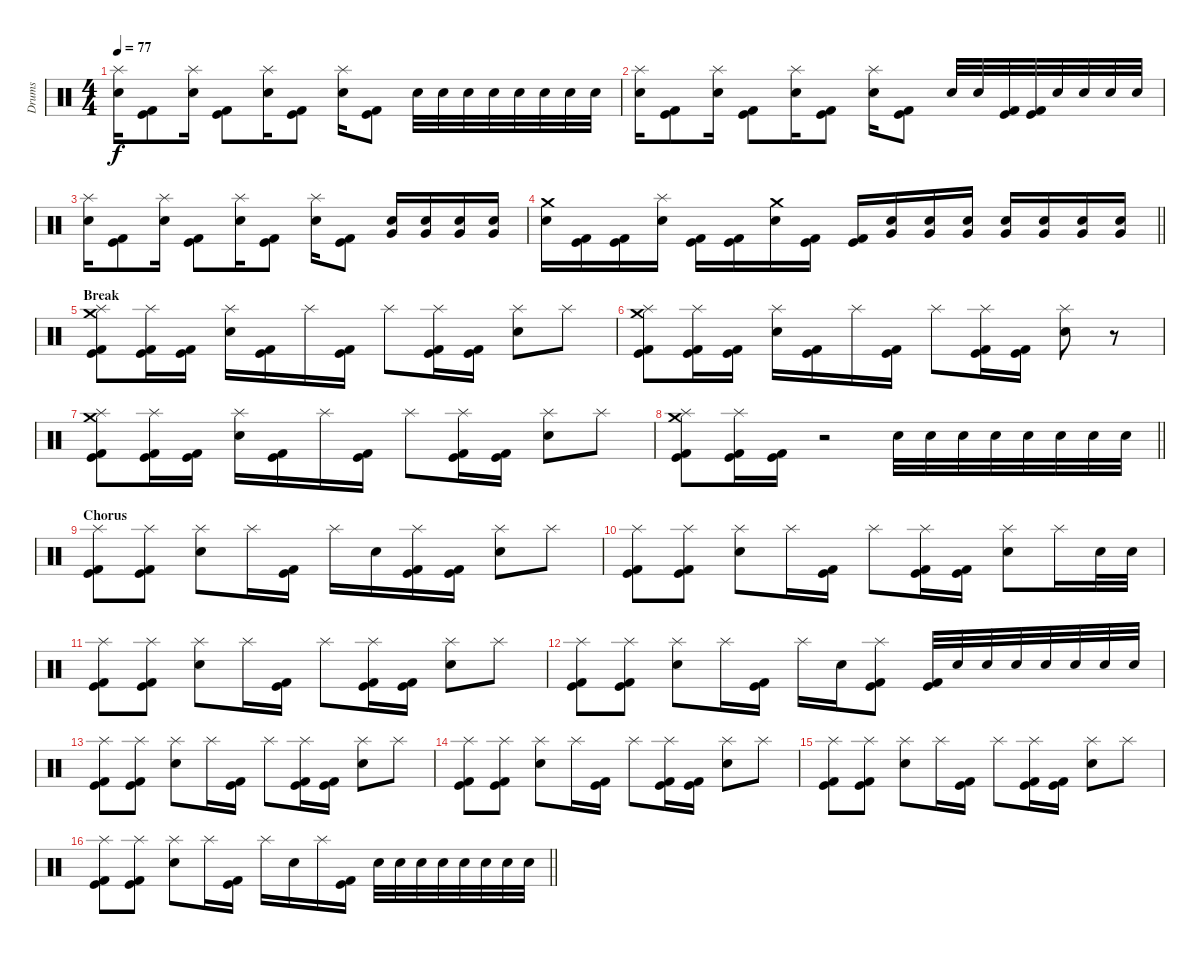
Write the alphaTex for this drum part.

\track ("Drums" "Drums") {instrument percussion}
\staff {score}
\articulation defaults
\ts (4 4)
\tempo 77
\clef neutral
\ks c
("Splash (hit)" "Snare (hit) 2").16{dy f} ("Kick (hit)" "Kick (hit) 2").8 ("Splash (hit)" "Snare (hit) 2").16 ("Kick (hit)" "Kick (hit) 2").8 ("Splash (hit)" "Snare (hit) 2").16 ("Kick (hit)" "Kick (hit) 2").8 ("Splash (hit)" "Snare (hit) 2").16 ("Kick (hit)" "Kick (hit) 2").8 "Snare (hit) 2".32 "Snare (hit) 2".32 "Snare (hit) 2".32 "Snare (hit) 2".32 "Snare (hit) 2".32 "Snare (hit) 2".32 "Snare (hit) 2".32 "Snare (hit) 2".32 |
("Splash (hit)" "Snare (hit) 2").16 ("Kick (hit)" "Kick (hit) 2").8 ("Splash (hit)" "Snare (hit) 2").16 ("Kick (hit)" "Kick (hit) 2").8 ("Splash (hit)" "Snare (hit) 2").16 ("Kick (hit)" "Kick (hit) 2").8 ("Splash (hit)" "Snare (hit) 2").16 ("Kick (hit)" "Kick (hit) 2").8 "Snare (hit) 2".32 "Snare (hit) 2".32 ("Kick (hit)" "Kick (hit) 2").32 ("Kick (hit)" "Kick (hit) 2").32 "Snare (hit) 2".32 "Snare (hit) 2".32 "Snare (hit) 2".32 "Snare (hit) 2".32 |
("Splash (hit)" "Snare (hit) 2").16 ("Kick (hit)" "Kick (hit) 2").8 ("Splash (hit)" "Snare (hit) 2").16 ("Kick (hit)" "Kick (hit) 2").8 ("Splash (hit)" "Snare (hit) 2").16 ("Kick (hit)" "Kick (hit) 2").8 ("Splash (hit)" "Snare (hit) 2").16 ("Kick (hit)" "Kick (hit) 2").8 ("Very Low Tom (hit)" "Snare (hit) 2").16 ("Very Low Tom (hit)" "Snare (hit) 2").16 ("Very Low Tom (hit)" "Snare (hit) 2").16 ("Very Low Tom (hit)" "Snare (hit) 2").16 |
\barLineRight lightlight
("Crash medium (hit)" "Snare (hit) 2").16 ("Kick (hit)" "Kick (hit) 2").16 ("Kick (hit)" "Kick (hit) 2").16 ("Splash (hit)" "Snare (hit) 2").16 ("Kick (hit)" "Kick (hit) 2").16 ("Kick (hit)" "Kick (hit) 2").16 ("Crash medium (hit)" "Snare (hit) 2").16 ("Kick (hit)" "Kick (hit) 2").16 ("Kick (hit)" "Kick (hit) 2").16 ("Very Low Tom (hit)" "Snare (hit) 2").16 ("Very Low Tom (hit)" "Snare (hit) 2").16 ("Very Low Tom (hit)" "Snare (hit) 2").16 ("Very Low Tom (hit)" "Snare (hit) 2").16 ("Very Low Tom (hit)" "Snare (hit) 2").16 ("Very Low Tom (hit)" "Snare (hit) 2").16 ("Very Low Tom (hit)" "Snare (hit) 2").16 |
\section ("" "Break")
("Splash (hit)" "Crash medium (hit)" "Kick (hit)" "Kick (hit) 2").8 ("Splash (hit)" "Kick (hit)" "Kick (hit) 2").16 ("Kick (hit)" "Kick (hit) 2").16 ("Splash (hit)" "Snare (hit) 2").16 ("Kick (hit)" "Kick (hit) 2").16 "Splash (hit)".16 ("Kick (hit)" "Kick (hit) 2").16 "Splash (hit)".8 ("Splash (hit)" "Kick (hit)" "Kick (hit) 2").16 ("Kick (hit)" "Kick (hit) 2").16 ("Splash (hit)" "Snare (hit) 2").8 "Splash (hit)".8 |
("Splash (hit)" "Crash medium (hit)" "Kick (hit)" "Kick (hit) 2").8 ("Splash (hit)" "Kick (hit)" "Kick (hit) 2").16 ("Kick (hit)" "Kick (hit) 2").16 ("Splash (hit)" "Snare (hit) 2").16 ("Kick (hit)" "Kick (hit) 2").16 "Splash (hit)".16 ("Kick (hit)" "Kick (hit) 2").16 "Splash (hit)".8 ("Splash (hit)" "Kick (hit)" "Kick (hit) 2").16 ("Kick (hit)" "Kick (hit) 2").16 ("Splash (hit)" "Snare (hit) 2").8 r.8 |
("Splash (hit)" "Crash medium (hit)" "Kick (hit)" "Kick (hit) 2").8 ("Splash (hit)" "Kick (hit)" "Kick (hit) 2").16 ("Kick (hit)" "Kick (hit) 2").16 ("Splash (hit)" "Snare (hit) 2").16 ("Kick (hit)" "Kick (hit) 2").16 "Splash (hit)".16 ("Kick (hit)" "Kick (hit) 2").16 "Splash (hit)".8 ("Splash (hit)" "Kick (hit)" "Kick (hit) 2").16 ("Kick (hit)" "Kick (hit) 2").16 ("Splash (hit)" "Snare (hit) 2").8 "Splash (hit)".8 |
\barLineRight lightlight
("Splash (hit)" "Crash medium (hit)" "Kick (hit)" "Kick (hit) 2").8 ("Splash (hit)" "Kick (hit)" "Kick (hit) 2").16 ("Kick (hit)" "Kick (hit) 2").16 r.2 "Snare (hit) 2".32 "Snare (hit) 2".32 "Snare (hit) 2".32 "Snare (hit) 2".32 "Snare (hit) 2".32 "Snare (hit) 2".32 "Snare (hit) 2".32 "Snare (hit) 2".32 |
\section ("" "Chorus")
("Splash (hit)" "Kick (hit)" "Kick (hit) 2").8 ("Splash (hit)" "Kick (hit)" "Kick (hit) 2").8 ("Splash (hit)" "Snare (hit) 2").8 "Splash (hit)".16 ("Kick (hit)" "Kick (hit) 2").16 "Splash (hit)".16 "Snare (hit) 2".16 ("Splash (hit)" "Kick (hit)" "Kick (hit) 2").16 ("Kick (hit)" "Kick (hit) 2").16 ("Splash (hit)" "Snare (hit) 2").8 "Splash (hit)".8 |
("Splash (hit)" "Kick (hit)" "Kick (hit) 2").8 ("Splash (hit)" "Kick (hit)" "Kick (hit) 2").8 ("Splash (hit)" "Snare (hit) 2").8 "Splash (hit)".16 ("Kick (hit)" "Kick (hit) 2").16 "Splash (hit)".8 ("Splash (hit)" "Kick (hit)" "Kick (hit) 2").16 ("Kick (hit)" "Kick (hit) 2").16 ("Splash (hit)" "Snare (hit) 2").8 "Splash (hit)".16 "Snare (hit) 2".32 "Snare (hit) 2".32 |
("Splash (hit)" "Kick (hit)" "Kick (hit) 2").8 ("Splash (hit)" "Kick (hit)" "Kick (hit) 2").8 ("Splash (hit)" "Snare (hit) 2").8 "Splash (hit)".16 ("Kick (hit)" "Kick (hit) 2").16 "Splash (hit)".8 ("Splash (hit)" "Kick (hit)" "Kick (hit) 2").16 ("Kick (hit)" "Kick (hit) 2").16 ("Splash (hit)" "Snare (hit) 2").8 "Splash (hit)".8 |
("Splash (hit)" "Kick (hit)" "Kick (hit) 2").8 ("Splash (hit)" "Kick (hit)" "Kick (hit) 2").8 ("Splash (hit)" "Snare (hit) 2").8 "Splash (hit)".16 ("Kick (hit)" "Kick (hit) 2").16 "Splash (hit)".16 "Snare (hit) 2".16 ("Splash (hit)" "Kick (hit)" "Kick (hit) 2").8 ("Kick (hit)" "Kick (hit) 2").32 "Snare (hit) 2".32 "Snare (hit) 2".32 "Snare (hit) 2".32 "Snare (hit) 2".32 "Snare (hit) 2".32 "Snare (hit) 2".32 "Snare (hit) 2".32 |
("Splash (hit)" "Kick (hit)" "Kick (hit) 2").8 ("Splash (hit)" "Kick (hit)" "Kick (hit) 2").8 ("Splash (hit)" "Snare (hit) 2").8 "Splash (hit)".16 ("Kick (hit)" "Kick (hit) 2").16 "Splash (hit)".8 ("Splash (hit)" "Kick (hit)" "Kick (hit) 2").16 ("Kick (hit)" "Kick (hit) 2").16 ("Splash (hit)" "Snare (hit) 2").8 "Splash (hit)".8 |
("Splash (hit)" "Kick (hit)" "Kick (hit) 2").8 ("Splash (hit)" "Kick (hit)" "Kick (hit) 2").8 ("Splash (hit)" "Snare (hit) 2").8 "Splash (hit)".16 ("Kick (hit)" "Kick (hit) 2").16 "Splash (hit)".8 ("Splash (hit)" "Kick (hit)" "Kick (hit) 2").16 ("Kick (hit)" "Kick (hit) 2").16 ("Splash (hit)" "Snare (hit) 2").8 "Splash (hit)".8 |
("Splash (hit)" "Kick (hit)" "Kick (hit) 2").8 ("Splash (hit)" "Kick (hit)" "Kick (hit) 2").8 ("Splash (hit)" "Snare (hit) 2").8 "Splash (hit)".16 ("Kick (hit)" "Kick (hit) 2").16 "Splash (hit)".8 ("Splash (hit)" "Kick (hit)" "Kick (hit) 2").16 ("Kick (hit)" "Kick (hit) 2").16 ("Splash (hit)" "Snare (hit) 2").8 "Splash (hit)".8 |
\barLineRight lightlight
("Splash (hit)" "Kick (hit)" "Kick (hit) 2").8 ("Splash (hit)" "Kick (hit)" "Kick (hit) 2").8 ("Splash (hit)" "Snare (hit) 2").8 "Splash (hit)".16 ("Kick (hit)" "Kick (hit) 2").16 "Splash (hit)".16 "Snare (hit) 2".16 "Splash (hit)".16 ("Kick (hit)" "Kick (hit) 2").16 "Snare (hit) 2".32 "Snare (hit) 2".32 "Snare (hit) 2".32 "Snare (hit) 2".32 "Snare (hit) 2".32 "Snare (hit) 2".32 "Snare (hit) 2".32 "Snare (hit) 2".32
